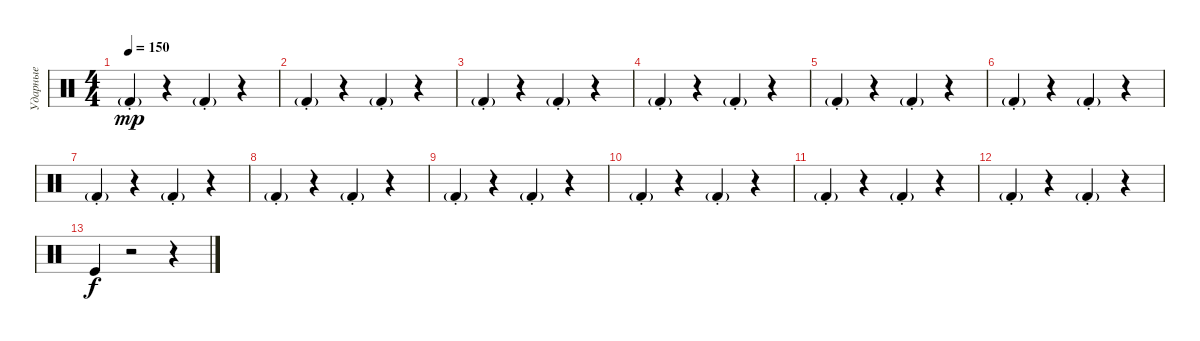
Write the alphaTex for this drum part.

\track ("Ударные" "Ударные") {instrument percussion}
\staff {score}
\articulation defaults
\ts (4 4)
\tempo 150
\clef neutral
\ks c "Kick (hit) 2"{g st}.4{dy mp}
r.4 "Kick (hit) 2"{g st}.4 r.4 |
"Kick (hit) 2"{g st}.4 r.4 "Kick (hit) 2"{g st}.4 r.4 |
"Kick (hit) 2"{g st}.4 r.4 "Kick (hit) 2"{g st}.4 r.4 |
"Kick (hit) 2"{g st}.4 r.4 "Kick (hit) 2"{g st}.4 r.4 |
"Kick (hit) 2"{g st}.4 r.4 "Kick (hit) 2"{g st}.4 r.4 |
"Kick (hit) 2"{g st}.4 r.4 "Kick (hit) 2"{g st}.4 r.4 |
"Kick (hit) 2"{g st}.4 r.4 "Kick (hit) 2"{g st}.4 r.4 |
"Kick (hit) 2"{g st}.4 r.4 "Kick (hit) 2"{g st}.4 r.4 |
"Kick (hit) 2"{g st}.4 r.4 "Kick (hit) 2"{g st}.4 r.4 |
"Kick (hit) 2"{g st}.4 r.4 "Kick (hit) 2"{g st}.4 r.4 |
"Kick (hit) 2"{g st}.4 r.4 "Kick (hit) 2"{g st}.4 r.4 |
"Kick (hit) 2"{g st}.4 r.4 "Kick (hit) 2"{g st}.4 r.4 |
"Kick (hit)".4{dy f} r.2 r.4
